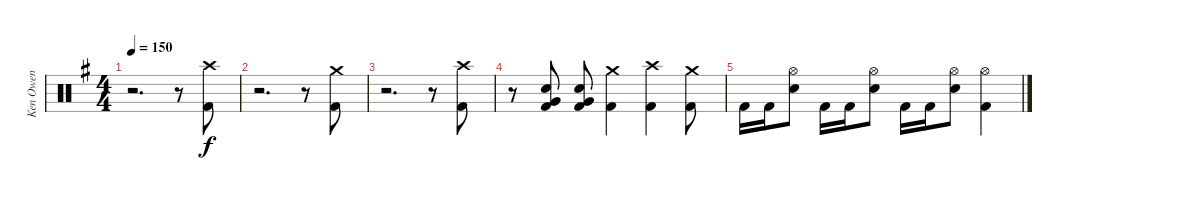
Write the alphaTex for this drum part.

\track ("Ken Owen" "Ken Owen") {instrument percussion}
\staff {score}
\articulation defaults
\ts (4 4)
\tempo 150
\clef neutral
\ks g
r.2{d dy f} r.8 ("Crash high (hit)" "Kick (hit) 2").8 |
r.2{d} r.8 ("Crash medium (hit)" "Kick (hit) 2").8 |
r.2{d} r.8 ("Crash high (hit)" "Kick (hit) 2").8 |
r.8 ("Snare (hit) 2" "Very Low Tom (hit)" "Kick (hit) 2").8{bd 60} ("Snare (hit) 2" "Very Low Tom (hit)" "Kick (hit) 2").8{bu 60} ("Crash medium (hit)" "Kick (hit) 2").4 ("Crash high (hit)" "Kick (hit) 2").4 ("Crash medium (hit)" "Kick (hit) 2").8 |
"Kick (hit) 2".16 "Kick (hit) 2".16 ("Hi-Hat (open)" "Snare (hit) 2").8 "Kick (hit) 2".16 "Kick (hit) 2".16 ("Hi-Hat (open)" "Snare (hit) 2").8 "Kick (hit) 2".16 "Kick (hit) 2".16 ("Hi-Hat (open)" "Snare (hit) 2").8 ("Hi-Hat (open)" "Kick (hit) 2").4
